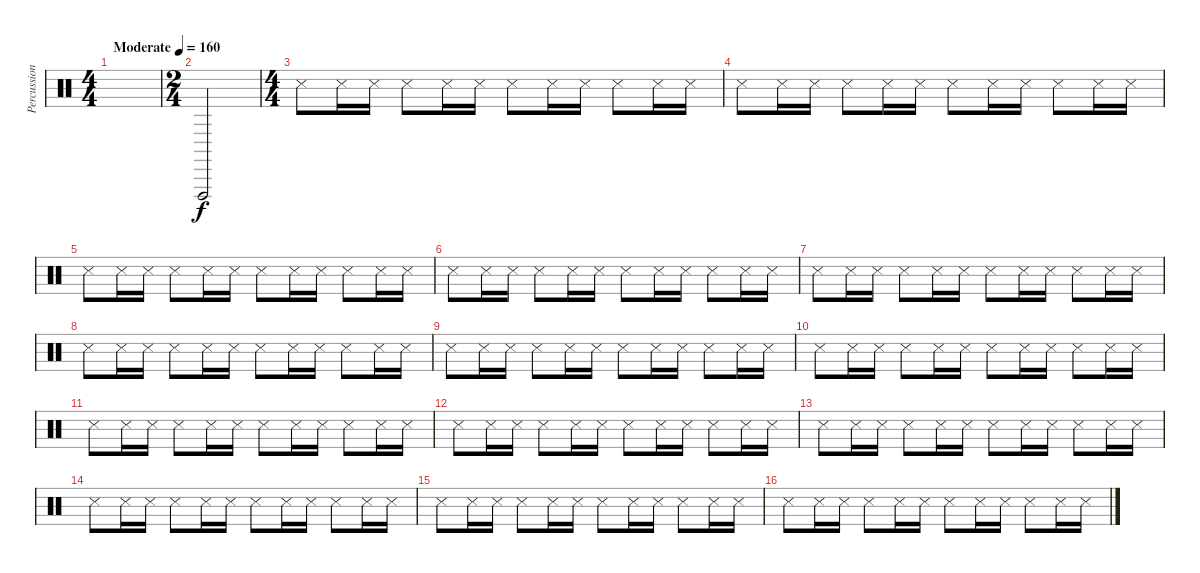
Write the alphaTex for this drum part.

\track ("Percussions" "Percussion") {instrument percussion}
\staff {score}
\articulation defaults
\ts (4 4)
\tempo (160 "Moderate")
\clef neutral
\ks c
|
\ts (2 4)
"Vibraslap (hit)".2 |
\ts (4 4)
"Snare (side stick) 3".8 "Snare (side stick) 3".16 "Snare (side stick) 3".16 "Snare (side stick) 3".8 "Snare (side stick) 3".16 "Snare (side stick) 3".16 "Snare (side stick) 3".8 "Snare (side stick) 3".16 "Snare (side stick) 3".16 "Snare (side stick) 3".8 "Snare (side stick) 3".16 "Snare (side stick) 3".16 |
"Snare (side stick) 3".8 "Snare (side stick) 3".16 "Snare (side stick) 3".16 "Snare (side stick) 3".8 "Snare (side stick) 3".16 "Snare (side stick) 3".16 "Snare (side stick) 3".8 "Snare (side stick) 3".16 "Snare (side stick) 3".16 "Snare (side stick) 3".8 "Snare (side stick) 3".16 "Snare (side stick) 3".16 |
"Snare (side stick) 3".8 "Snare (side stick) 3".16 "Snare (side stick) 3".16 "Snare (side stick) 3".8 "Snare (side stick) 3".16 "Snare (side stick) 3".16 "Snare (side stick) 3".8 "Snare (side stick) 3".16 "Snare (side stick) 3".16 "Snare (side stick) 3".8 "Snare (side stick) 3".16 "Snare (side stick) 3".16 |
"Snare (side stick) 3".8 "Snare (side stick) 3".16 "Snare (side stick) 3".16 "Snare (side stick) 3".8 "Snare (side stick) 3".16 "Snare (side stick) 3".16 "Snare (side stick) 3".8 "Snare (side stick) 3".16 "Snare (side stick) 3".16 "Snare (side stick) 3".8 "Snare (side stick) 3".16 "Snare (side stick) 3".16 |
"Snare (side stick) 3".8 "Snare (side stick) 3".16 "Snare (side stick) 3".16 "Snare (side stick) 3".8 "Snare (side stick) 3".16 "Snare (side stick) 3".16 "Snare (side stick) 3".8 "Snare (side stick) 3".16 "Snare (side stick) 3".16 "Snare (side stick) 3".8 "Snare (side stick) 3".16 "Snare (side stick) 3".16 |
"Snare (side stick) 3".8 "Snare (side stick) 3".16 "Snare (side stick) 3".16 "Snare (side stick) 3".8 "Snare (side stick) 3".16 "Snare (side stick) 3".16 "Snare (side stick) 3".8 "Snare (side stick) 3".16 "Snare (side stick) 3".16 "Snare (side stick) 3".8 "Snare (side stick) 3".16 "Snare (side stick) 3".16 |
"Snare (side stick) 3".8 "Snare (side stick) 3".16 "Snare (side stick) 3".16 "Snare (side stick) 3".8 "Snare (side stick) 3".16 "Snare (side stick) 3".16 "Snare (side stick) 3".8 "Snare (side stick) 3".16 "Snare (side stick) 3".16 "Snare (side stick) 3".8 "Snare (side stick) 3".16 "Snare (side stick) 3".16 |
"Snare (side stick) 3".8 "Snare (side stick) 3".16 "Snare (side stick) 3".16 "Snare (side stick) 3".8 "Snare (side stick) 3".16 "Snare (side stick) 3".16 "Snare (side stick) 3".8 "Snare (side stick) 3".16 "Snare (side stick) 3".16 "Snare (side stick) 3".8 "Snare (side stick) 3".16 "Snare (side stick) 3".16 |
"Snare (side stick) 3".8 "Snare (side stick) 3".16 "Snare (side stick) 3".16 "Snare (side stick) 3".8 "Snare (side stick) 3".16 "Snare (side stick) 3".16 "Snare (side stick) 3".8 "Snare (side stick) 3".16 "Snare (side stick) 3".16 "Snare (side stick) 3".8 "Snare (side stick) 3".16 "Snare (side stick) 3".16 |
"Snare (side stick) 3".8 "Snare (side stick) 3".16 "Snare (side stick) 3".16 "Snare (side stick) 3".8 "Snare (side stick) 3".16 "Snare (side stick) 3".16 "Snare (side stick) 3".8 "Snare (side stick) 3".16 "Snare (side stick) 3".16 "Snare (side stick) 3".8 "Snare (side stick) 3".16 "Snare (side stick) 3".16 |
"Snare (side stick) 3".8 "Snare (side stick) 3".16 "Snare (side stick) 3".16 "Snare (side stick) 3".8 "Snare (side stick) 3".16 "Snare (side stick) 3".16 "Snare (side stick) 3".8 "Snare (side stick) 3".16 "Snare (side stick) 3".16 "Snare (side stick) 3".8 "Snare (side stick) 3".16 "Snare (side stick) 3".16 |
"Snare (side stick) 3".8 "Snare (side stick) 3".16 "Snare (side stick) 3".16 "Snare (side stick) 3".8 "Snare (side stick) 3".16 "Snare (side stick) 3".16 "Snare (side stick) 3".8 "Snare (side stick) 3".16 "Snare (side stick) 3".16 "Snare (side stick) 3".8 "Snare (side stick) 3".16 "Snare (side stick) 3".16 |
"Snare (side stick) 3".8 "Snare (side stick) 3".16 "Snare (side stick) 3".16 "Snare (side stick) 3".8 "Snare (side stick) 3".16 "Snare (side stick) 3".16 "Snare (side stick) 3".8 "Snare (side stick) 3".16 "Snare (side stick) 3".16 "Snare (side stick) 3".8 "Snare (side stick) 3".16 "Snare (side stick) 3".16 |
"Snare (side stick) 3".8 "Snare (side stick) 3".16 "Snare (side stick) 3".16 "Snare (side stick) 3".8 "Snare (side stick) 3".16 "Snare (side stick) 3".16 "Snare (side stick) 3".8 "Snare (side stick) 3".16 "Snare (side stick) 3".16 "Snare (side stick) 3".8 "Snare (side stick) 3".16 "Snare (side stick) 3".16
